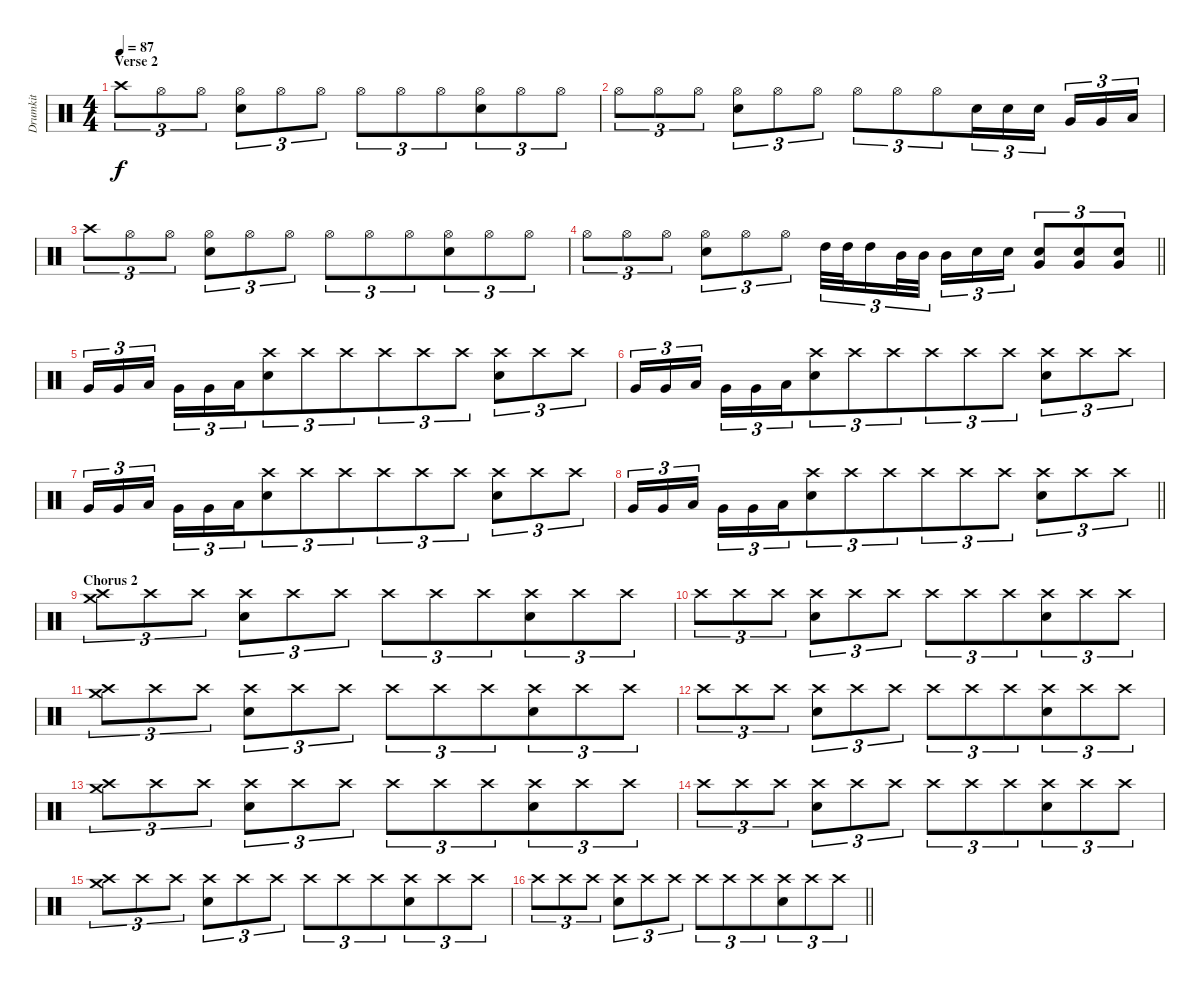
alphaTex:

\track ("Drumkit" "Drumkit") {instrument percussion bank 158}
\staff {score}
\articulation defaults
\ts (4 4)
\section ("" "Verse 2")
\tempo 87
\clef neutral
\ks c "Crash high (hit)".8{tu (3 2) dy f} "Hi-Hat (open)".8{tu (3 2) beam merge} "Hi-Hat (open)".8{tu (3 2)}
("Hi-Hat (open)" "Electric Snare (hit)").8{tu (3 2) beam merge} "Hi-Hat (open)".8{tu (3 2) beam merge} "Hi-Hat (open)".8{tu (3 2)} "Hi-Hat (open)".8{tu (3 2) beam merge} "Hi-Hat (open)".8{tu (3 2)} "Hi-Hat (open)".8{tu (3 2) beam merge} ("Hi-Hat (open)" "Electric Snare (hit)").8{tu (3 2) beam merge} "Hi-Hat (open)".8{tu (3 2) beam merge} "Hi-Hat (open)".8{tu (3 2)} |
"Hi-Hat (open)".8{tu (3 2)} "Hi-Hat (open)".8{tu (3 2) beam merge} "Hi-Hat (open)".8{tu (3 2)} ("Hi-Hat (open)" "Electric Snare (hit)").8{tu (3 2) beam merge} "Hi-Hat (open)".8{tu (3 2) beam merge} "Hi-Hat (open)".8{tu (3 2)} "Hi-Hat (open)".8{tu (3 2) beam merge} "Hi-Hat (open)".8{tu (3 2)} "Hi-Hat (open)".8{tu (3 2) beam merge} "Electric Snare (hit)".16{tu (3 2) beam merge} "Electric Snare (hit)".16{tu (3 2) beam merge} "Electric Snare (hit)".16{tu (3 2) beam splitsecondary} "Very Low Tom (hit)".16{tu (3 2) beam merge} "Very Low Tom (hit)".16{tu (3 2)} "Low Floor Tom (hit)".16{tu (3 2)} |
"Crash high (hit)".8{tu (3 2)} "Hi-Hat (open)".8{tu (3 2) beam merge} "Hi-Hat (open)".8{tu (3 2)} ("Hi-Hat (open)" "Electric Snare (hit)").8{tu (3 2) beam merge} "Hi-Hat (open)".8{tu (3 2) beam merge} "Hi-Hat (open)".8{tu (3 2)} "Hi-Hat (open)".8{tu (3 2) beam merge} "Hi-Hat (open)".8{tu (3 2)} "Hi-Hat (open)".8{tu (3 2) beam merge} ("Hi-Hat (open)" "Electric Snare (hit)").8{tu (3 2) beam merge} "Hi-Hat (open)".8{tu (3 2) beam merge} "Hi-Hat (open)".8{tu (3 2)} |
\barLineRight lightlight "Hi-Hat (open)".8{tu (3 2)} "Hi-Hat (open)".8{tu (3 2) beam merge} "Hi-Hat (open)".8{tu (3 2)}
("Hi-Hat (open)" "Electric Snare (hit)").8{tu (3 2) beam merge} "Hi-Hat (open)".8{tu (3 2) beam merge} "Hi-Hat (open)".8{tu (3 2)} "High Tom (hit)".32{tu (3 2) beam merge} "High Tom (hit)".32{tu (3 2)} "High Tom (hit)".16{tu (3 2) beam merge} "Mid Tom (hit)".32{tu (3 2) beam merge} "Mid Tom (hit)".32{tu (3 2) beam splitsecondary} "Mid Tom (hit)".16{tu (3 2)} "Electric Snare (hit)".16{tu (3 2) beam merge} "Electric Snare (hit)".16{tu (3 2)} ("Very Low Tom (hit)" "Electric Snare (hit)").8{tu (3 2) beam merge} ("Very Low Tom (hit)" "Electric Snare (hit)").8{tu (3 2)} ("Very Low Tom (hit)" "Electric Snare (hit)").8{tu (3 2)} |
"Very Low Tom (hit)".16{tu (3 2)} "Very Low Tom (hit)".16{tu (3 2)} "Low Floor Tom (hit)".16{tu (3 2) beam splitsecondary} "Very Low Tom (hit)".16{tu (3 2)} "Very Low Tom (hit)".16{tu (3 2) beam merge} "Low Floor Tom (hit)".16{tu (3 2) beam merge} ("Crash high (hit)" "Electric Snare (hit)").8{tu (3 2)} "Crash high (hit)".8{tu (3 2)} "Crash high (hit)".8{tu (3 2) beam merge} "Crash high (hit)".8{tu (3 2)} "Crash high (hit)".8{tu (3 2) beam merge} "Crash high (hit)".8{tu (3 2)} ("Crash high (hit)" "Electric Snare (hit)").8{tu (3 2)} "Crash high (hit)".8{tu (3 2) beam merge} "Crash high (hit)".8{tu (3 2)} |
"Very Low Tom (hit)".16{tu (3 2)} "Very Low Tom (hit)".16{tu (3 2)} "Low Floor Tom (hit)".16{tu (3 2) beam splitsecondary} "Very Low Tom (hit)".16{tu (3 2)} "Very Low Tom (hit)".16{tu (3 2) beam merge} "Low Floor Tom (hit)".16{tu (3 2) beam merge} ("Crash high (hit)" "Electric Snare (hit)").8{tu (3 2)} "Crash high (hit)".8{tu (3 2)} "Crash high (hit)".8{tu (3 2) beam merge} "Crash high (hit)".8{tu (3 2)} "Crash high (hit)".8{tu (3 2) beam merge} "Crash high (hit)".8{tu (3 2)} ("Crash high (hit)" "Electric Snare (hit)").8{tu (3 2)} "Crash high (hit)".8{tu (3 2) beam merge} "Crash high (hit)".8{tu (3 2)} |
"Very Low Tom (hit)".16{tu (3 2)} "Very Low Tom (hit)".16{tu (3 2)} "Low Floor Tom (hit)".16{tu (3 2) beam splitsecondary} "Very Low Tom (hit)".16{tu (3 2)} "Very Low Tom (hit)".16{tu (3 2) beam merge} "Low Floor Tom (hit)".16{tu (3 2) beam merge} ("Crash high (hit)" "Electric Snare (hit)").8{tu (3 2)} "Crash high (hit)".8{tu (3 2)} "Crash high (hit)".8{tu (3 2) beam merge} "Crash high (hit)".8{tu (3 2)} "Crash high (hit)".8{tu (3 2) beam merge} "Crash high (hit)".8{tu (3 2)} ("Crash high (hit)" "Electric Snare (hit)").8{tu (3 2)} "Crash high (hit)".8{tu (3 2) beam merge} "Crash high (hit)".8{tu (3 2)} |
\barLineRight lightlight "Very Low Tom (hit)".16{tu (3 2)} "Very Low Tom (hit)".16{tu (3 2)} "Low Floor Tom (hit)".16{tu (3 2) beam splitsecondary} "Very Low Tom (hit)".16{tu (3 2)} "Very Low Tom (hit)".16{tu (3 2) beam merge} "Low Floor Tom (hit)".16{tu (3 2) beam merge}
("Crash high (hit)" "Electric Snare (hit)").8{tu (3 2)} "Crash high (hit)".8{tu (3 2)} "Crash high (hit)".8{tu (3 2) beam merge} "Crash high (hit)".8{tu (3 2)} "Crash high (hit)".8{tu (3 2) beam merge} "Crash high (hit)".8{tu (3 2)} ("Crash high (hit)" "Electric Snare (hit)").8{tu (3 2)} "Crash high (hit)".8{tu (3 2) beam merge} "Crash high (hit)".8{tu (3 2)} |
\section ("" "Chorus 2")
("Crash medium (hit)" "Crash high (hit)").8{tu (3 2)} "Crash high (hit)".8{tu (3 2)} "Crash high (hit)".8{tu (3 2)} ("Crash high (hit)" "Electric Snare (hit)").8{tu (3 2)} "Crash high (hit)".8{tu (3 2) beam merge} "Crash high (hit)".8{tu (3 2)} "Crash high (hit)".8{tu (3 2)} "Crash high (hit)".8{tu (3 2)} "Crash high (hit)".8{tu (3 2) beam merge} ("Crash high (hit)" "Electric Snare (hit)").8{tu (3 2)} "Crash high (hit)".8{tu (3 2) beam merge} "Crash high (hit)".8{tu (3 2)} |
"Crash high (hit)".8{tu (3 2)} "Crash high (hit)".8{tu (3 2)} "Crash high (hit)".8{tu (3 2)} ("Crash high (hit)" "Electric Snare (hit)").8{tu (3 2)} "Crash high (hit)".8{tu (3 2) beam merge} "Crash high (hit)".8{tu (3 2)} "Crash high (hit)".8{tu (3 2)} "Crash high (hit)".8{tu (3 2)} "Crash high (hit)".8{tu (3 2) beam merge} ("Crash high (hit)" "Electric Snare (hit)").8{tu (3 2)} "Crash high (hit)".8{tu (3 2) beam merge} "Crash high (hit)".8{tu (3 2)} |
("Crash medium (hit)" "Crash high (hit)").8{tu (3 2)} "Crash high (hit)".8{tu (3 2)} "Crash high (hit)".8{tu (3 2)} ("Crash high (hit)" "Electric Snare (hit)").8{tu (3 2)} "Crash high (hit)".8{tu (3 2) beam merge} "Crash high (hit)".8{tu (3 2)} "Crash high (hit)".8{tu (3 2)} "Crash high (hit)".8{tu (3 2)} "Crash high (hit)".8{tu (3 2) beam merge} ("Crash high (hit)" "Electric Snare (hit)").8{tu (3 2)} "Crash high (hit)".8{tu (3 2) beam merge} "Crash high (hit)".8{tu (3 2)} |
"Crash high (hit)".8{tu (3 2)} "Crash high (hit)".8{tu (3 2)} "Crash high (hit)".8{tu (3 2)} ("Crash high (hit)" "Electric Snare (hit)").8{tu (3 2)} "Crash high (hit)".8{tu (3 2) beam merge} "Crash high (hit)".8{tu (3 2)} "Crash high (hit)".8{tu (3 2)} "Crash high (hit)".8{tu (3 2)} "Crash high (hit)".8{tu (3 2) beam merge} ("Crash high (hit)" "Electric Snare (hit)").8{tu (3 2)} "Crash high (hit)".8{tu (3 2) beam merge} "Crash high (hit)".8{tu (3 2)} |
("Crash medium (hit)" "Crash high (hit)").8{tu (3 2)} "Crash high (hit)".8{tu (3 2)} "Crash high (hit)".8{tu (3 2)} ("Crash high (hit)" "Electric Snare (hit)").8{tu (3 2)} "Crash high (hit)".8{tu (3 2) beam merge} "Crash high (hit)".8{tu (3 2)} "Crash high (hit)".8{tu (3 2)} "Crash high (hit)".8{tu (3 2)} "Crash high (hit)".8{tu (3 2) beam merge} ("Crash high (hit)" "Electric Snare (hit)").8{tu (3 2)} "Crash high (hit)".8{tu (3 2) beam merge} "Crash high (hit)".8{tu (3 2)} |
"Crash high (hit)".8{tu (3 2)} "Crash high (hit)".8{tu (3 2)} "Crash high (hit)".8{tu (3 2)} ("Crash high (hit)" "Electric Snare (hit)").8{tu (3 2)} "Crash high (hit)".8{tu (3 2) beam merge} "Crash high (hit)".8{tu (3 2)} "Crash high (hit)".8{tu (3 2)} "Crash high (hit)".8{tu (3 2)} "Crash high (hit)".8{tu (3 2) beam merge} ("Crash high (hit)" "Electric Snare (hit)").8{tu (3 2)} "Crash high (hit)".8{tu (3 2) beam merge} "Crash high (hit)".8{tu (3 2)} |
("Crash medium (hit)" "Crash high (hit)").8{tu (3 2)} "Crash high (hit)".8{tu (3 2)} "Crash high (hit)".8{tu (3 2)} ("Crash high (hit)" "Electric Snare (hit)").8{tu (3 2)} "Crash high (hit)".8{tu (3 2) beam merge} "Crash high (hit)".8{tu (3 2)} "Crash high (hit)".8{tu (3 2)} "Crash high (hit)".8{tu (3 2)} "Crash high (hit)".8{tu (3 2) beam merge} ("Crash high (hit)" "Electric Snare (hit)").8{tu (3 2)} "Crash high (hit)".8{tu (3 2) beam merge} "Crash high (hit)".8{tu (3 2)} |
\barLineRight lightlight "Crash high (hit)".8{tu (3 2)} "Crash high (hit)".8{tu (3 2)} "Crash high (hit)".8{tu (3 2)}
("Crash high (hit)" "Electric Snare (hit)").8{tu (3 2)} "Crash high (hit)".8{tu (3 2) beam merge} "Crash high (hit)".8{tu (3 2)} "Crash high (hit)".8{tu (3 2)} "Crash high (hit)".8{tu (3 2)} "Crash high (hit)".8{tu (3 2) beam merge} ("Crash high (hit)" "Electric Snare (hit)").8{tu (3 2)} "Crash high (hit)".8{tu (3 2) beam merge} "Crash high (hit)".8{tu (3 2)}
